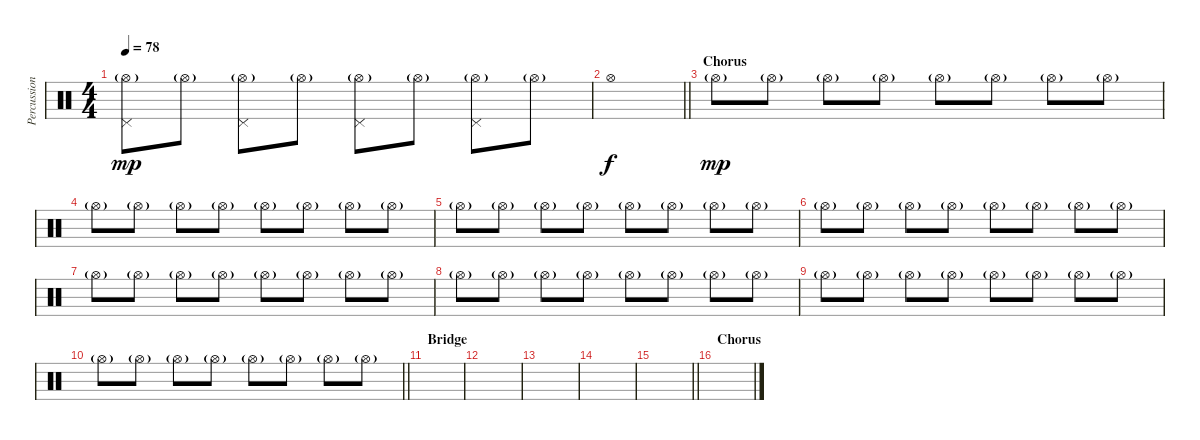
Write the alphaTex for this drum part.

\track ("Percussion" "Percussion") {instrument percussion}
\staff {score}
\articulation defaults
\ts (4 4)
\tempo 78
\clef neutral
\ks c
("Hi-Hat (open)"{g} "Pedal Hi-Hat (hit)").8{dy mp} "Hi-Hat (open)"{g}.8 ("Hi-Hat (open)"{g} "Pedal Hi-Hat (hit)").8 "Hi-Hat (open)"{g}.8 ("Hi-Hat (open)"{g} "Pedal Hi-Hat (hit)").8 "Hi-Hat (open)"{g}.8 ("Hi-Hat (open)"{g} "Pedal Hi-Hat (hit)").8 "Hi-Hat (open)"{g}.8 |
\barLineRight lightlight "Hi-Hat (open)".1{dy f}
|
\section ("" "Chorus")
"Hi-Hat (open)"{g}.8{dy mp} "Hi-Hat (open)"{g}.8 "Hi-Hat (open)"{g}.8 "Hi-Hat (open)"{g}.8 "Hi-Hat (open)"{g}.8 "Hi-Hat (open)"{g}.8 "Hi-Hat (open)"{g}.8 "Hi-Hat (open)"{g}.8 |
"Hi-Hat (open)"{g}.8 "Hi-Hat (open)"{g}.8 "Hi-Hat (open)"{g}.8 "Hi-Hat (open)"{g}.8 "Hi-Hat (open)"{g}.8 "Hi-Hat (open)"{g}.8 "Hi-Hat (open)"{g}.8 "Hi-Hat (open)"{g}.8 |
"Hi-Hat (open)"{g}.8 "Hi-Hat (open)"{g}.8 "Hi-Hat (open)"{g}.8 "Hi-Hat (open)"{g}.8 "Hi-Hat (open)"{g}.8 "Hi-Hat (open)"{g}.8 "Hi-Hat (open)"{g}.8 "Hi-Hat (open)"{g}.8 |
"Hi-Hat (open)"{g}.8 "Hi-Hat (open)"{g}.8 "Hi-Hat (open)"{g}.8 "Hi-Hat (open)"{g}.8 "Hi-Hat (open)"{g}.8 "Hi-Hat (open)"{g}.8 "Hi-Hat (open)"{g}.8 "Hi-Hat (open)"{g}.8 |
"Hi-Hat (open)"{g}.8 "Hi-Hat (open)"{g}.8 "Hi-Hat (open)"{g}.8 "Hi-Hat (open)"{g}.8 "Hi-Hat (open)"{g}.8 "Hi-Hat (open)"{g}.8 "Hi-Hat (open)"{g}.8 "Hi-Hat (open)"{g}.8 |
"Hi-Hat (open)"{g}.8 "Hi-Hat (open)"{g}.8 "Hi-Hat (open)"{g}.8 "Hi-Hat (open)"{g}.8 "Hi-Hat (open)"{g}.8 "Hi-Hat (open)"{g}.8 "Hi-Hat (open)"{g}.8 "Hi-Hat (open)"{g}.8 |
"Hi-Hat (open)"{g}.8 "Hi-Hat (open)"{g}.8 "Hi-Hat (open)"{g}.8 "Hi-Hat (open)"{g}.8 "Hi-Hat (open)"{g}.8 "Hi-Hat (open)"{g}.8 "Hi-Hat (open)"{g}.8 "Hi-Hat (open)"{g}.8 |
\barLineRight lightlight "Hi-Hat (open)"{g}.8 "Hi-Hat (open)"{g}.8 "Hi-Hat (open)"{g}.8 "Hi-Hat (open)"{g}.8 "Hi-Hat (open)"{g}.8 "Hi-Hat (open)"{g}.8 "Hi-Hat (open)"{g}.8 "Hi-Hat (open)"{g}.8
|
\section ("" "Bridge")
|
|
|
|
\barLineRight lightlight
|
\section ("" "Chorus")
